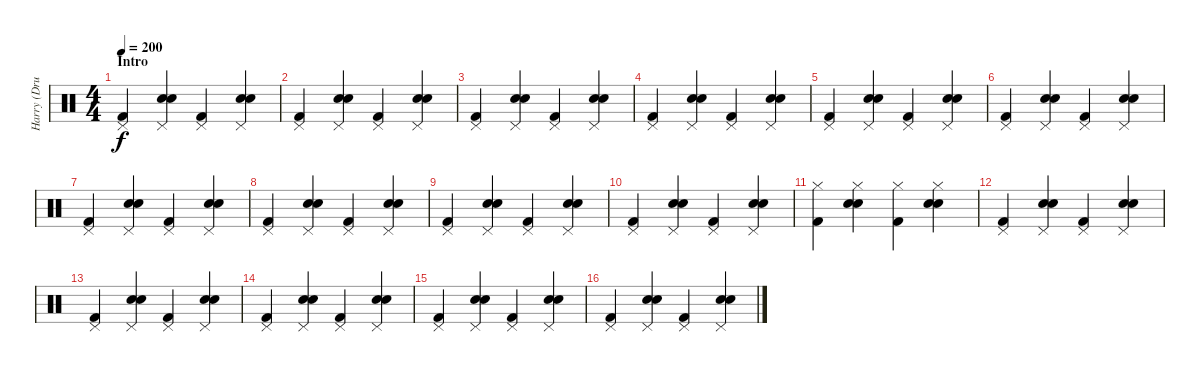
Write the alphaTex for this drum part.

\track ("Harry (Drums)" "Harry (Dru") {instrument percussion}
\staff {score}
\articulation defaults
\ts (4 4)
\section ("" "Intro")
\tempo 200
\clef neutral
\ks c
("Kick (hit) 2" "Pedal Hi-Hat (hit)").4{dy f} ("Snare (hit) 2" "Electric Snare (hit)" "Pedal Hi-Hat (hit)").4 ("Kick (hit) 2" "Pedal Hi-Hat (hit)").4 ("Snare (hit) 2" "Electric Snare (hit)" "Pedal Hi-Hat (hit)").4 |
("Kick (hit) 2" "Pedal Hi-Hat (hit)").4 ("Snare (hit) 2" "Electric Snare (hit)" "Pedal Hi-Hat (hit)").4 ("Kick (hit) 2" "Pedal Hi-Hat (hit)").4 ("Snare (hit) 2" "Electric Snare (hit)" "Pedal Hi-Hat (hit)").4 |
("Kick (hit) 2" "Pedal Hi-Hat (hit)").4 ("Snare (hit) 2" "Electric Snare (hit)" "Pedal Hi-Hat (hit)").4 ("Kick (hit) 2" "Pedal Hi-Hat (hit)").4 ("Snare (hit) 2" "Electric Snare (hit)" "Pedal Hi-Hat (hit)").4 |
("Kick (hit) 2" "Pedal Hi-Hat (hit)").4 ("Snare (hit) 2" "Electric Snare (hit)" "Pedal Hi-Hat (hit)").4 ("Kick (hit) 2" "Pedal Hi-Hat (hit)").4 ("Snare (hit) 2" "Electric Snare (hit)" "Pedal Hi-Hat (hit)").4 |
("Kick (hit) 2" "Pedal Hi-Hat (hit)").4 ("Snare (hit) 2" "Electric Snare (hit)" "Pedal Hi-Hat (hit)").4 ("Kick (hit) 2" "Pedal Hi-Hat (hit)").4 ("Snare (hit) 2" "Electric Snare (hit)" "Pedal Hi-Hat (hit)").4 |
("Kick (hit) 2" "Pedal Hi-Hat (hit)").4 ("Snare (hit) 2" "Electric Snare (hit)" "Pedal Hi-Hat (hit)").4 ("Kick (hit) 2" "Pedal Hi-Hat (hit)").4 ("Snare (hit) 2" "Electric Snare (hit)" "Pedal Hi-Hat (hit)").4 |
("Kick (hit) 2" "Pedal Hi-Hat (hit)").4 ("Snare (hit) 2" "Electric Snare (hit)" "Pedal Hi-Hat (hit)").4 ("Kick (hit) 2" "Pedal Hi-Hat (hit)").4 ("Snare (hit) 2" "Electric Snare (hit)" "Pedal Hi-Hat (hit)").4 |
("Kick (hit) 2" "Pedal Hi-Hat (hit)").4 ("Snare (hit) 2" "Electric Snare (hit)" "Pedal Hi-Hat (hit)").4 ("Kick (hit) 2" "Pedal Hi-Hat (hit)").4 ("Snare (hit) 2" "Electric Snare (hit)" "Pedal Hi-Hat (hit)").4 |
("Kick (hit) 2" "Pedal Hi-Hat (hit)").4 ("Snare (hit) 2" "Electric Snare (hit)" "Pedal Hi-Hat (hit)").4 ("Kick (hit) 2" "Pedal Hi-Hat (hit)").4 ("Snare (hit) 2" "Electric Snare (hit)" "Pedal Hi-Hat (hit)").4 |
("Kick (hit) 2" "Pedal Hi-Hat (hit)").4 ("Snare (hit) 2" "Electric Snare (hit)" "Pedal Hi-Hat (hit)").4 ("Kick (hit) 2" "Pedal Hi-Hat (hit)").4 ("Snare (hit) 2" "Electric Snare (hit)" "Pedal Hi-Hat (hit)").4 |
("Kick (hit) 2" "Hi-Hat (closed)").4 ("Snare (hit) 2" "Electric Snare (hit)" "Hi-Hat (closed)").4 ("Kick (hit) 2" "Hi-Hat (closed)").4 ("Snare (hit) 2" "Electric Snare (hit)" "Hi-Hat (closed)").4 |
("Kick (hit) 2" "Pedal Hi-Hat (hit)").4 ("Snare (hit) 2" "Electric Snare (hit)" "Pedal Hi-Hat (hit)").4 ("Kick (hit) 2" "Pedal Hi-Hat (hit)").4 ("Snare (hit) 2" "Electric Snare (hit)" "Pedal Hi-Hat (hit)").4 |
("Kick (hit) 2" "Pedal Hi-Hat (hit)").4 ("Snare (hit) 2" "Electric Snare (hit)" "Pedal Hi-Hat (hit)").4 ("Kick (hit) 2" "Pedal Hi-Hat (hit)").4 ("Snare (hit) 2" "Electric Snare (hit)" "Pedal Hi-Hat (hit)").4 |
("Kick (hit) 2" "Pedal Hi-Hat (hit)").4 ("Snare (hit) 2" "Electric Snare (hit)" "Pedal Hi-Hat (hit)").4 ("Kick (hit) 2" "Pedal Hi-Hat (hit)").4 ("Snare (hit) 2" "Electric Snare (hit)" "Pedal Hi-Hat (hit)").4 |
("Kick (hit) 2" "Pedal Hi-Hat (hit)").4 ("Snare (hit) 2" "Electric Snare (hit)" "Pedal Hi-Hat (hit)").4 ("Kick (hit) 2" "Pedal Hi-Hat (hit)").4 ("Snare (hit) 2" "Electric Snare (hit)" "Pedal Hi-Hat (hit)").4 |
("Kick (hit) 2" "Pedal Hi-Hat (hit)").4 ("Snare (hit) 2" "Electric Snare (hit)" "Pedal Hi-Hat (hit)").4 ("Kick (hit) 2" "Pedal Hi-Hat (hit)").4 ("Snare (hit) 2" "Electric Snare (hit)" "Pedal Hi-Hat (hit)").4
